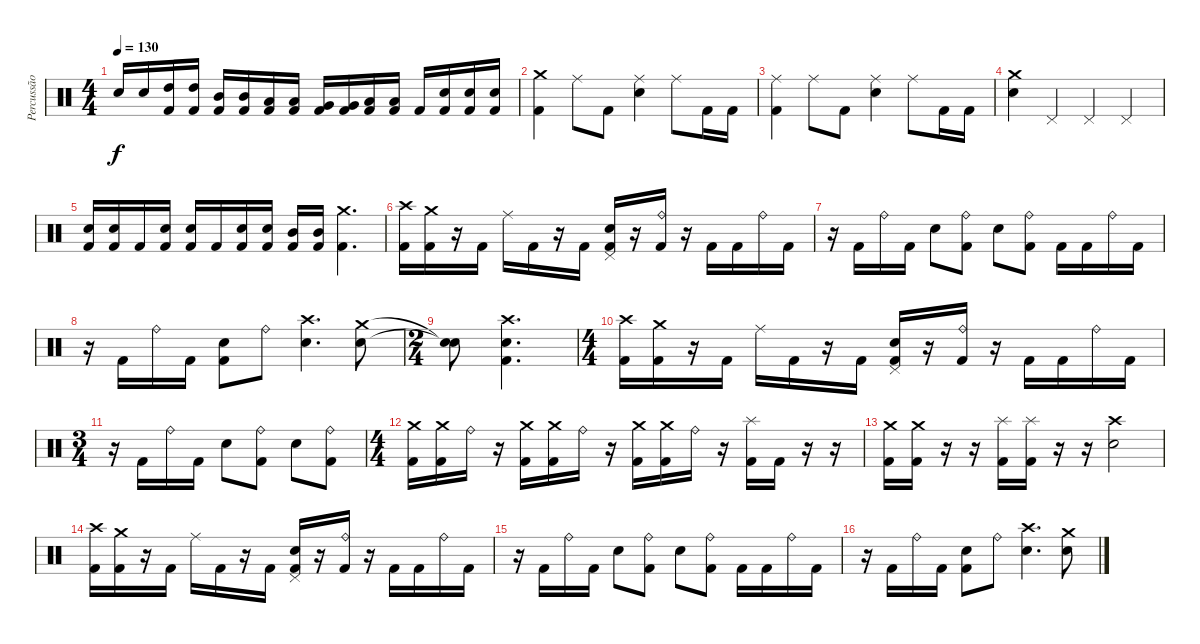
\track ("Percussão" "Percussão") {instrument percussion}
\staff {score}
\articulation defaults
\ts (4 4)
\tempo 130
\clef neutral
\ks c "Electric Snare (hit)".16{dy f} "Electric Snare (hit)".16
("High Tom (hit)" "Kick (hit) 2").16 ("High Tom (hit)" "Kick (hit) 2").16 ("Mid Tom (hit)" "Kick (hit) 2").16 ("Mid Tom (hit)" "Kick (hit) 2").16 ("Low Tom (hit)" "Kick (hit) 2").16 ("Low Tom (hit)" "Kick (hit) 2").16 ("Very Low Tom (hit)" "Kick (hit) 2").16 ("Very Low Tom (hit)" "Kick (hit) 2").16 ("Low Floor Tom (hit)" "Kick (hit) 2").16 ("Low Floor Tom (hit)" "Kick (hit) 2").16 "Kick (hit) 2".16 ("Electric Snare (hit)" "Kick (hit) 2").16 ("Electric Snare (hit)" "Kick (hit) 2").16 ("Electric Snare (hit)" "Kick (hit) 2").16 |
("Crash medium (hit)" "Kick (hit) 2").4 "Ride (middle)".8 "Kick (hit) 2".8 ("Ride (middle)" "Electric Snare (hit)").4 "Ride (middle)".8 "Kick (hit) 2".16 "Kick (hit) 2".16 |
("Ride (middle)" "Kick (hit) 2").4 "Ride (middle)".8 "Kick (hit) 2".8 ("Ride (middle)" "Electric Snare (hit)").4 "Ride (middle)".8 "Kick (hit) 2".16 "Kick (hit) 2".16 |
("Crash medium (hit)" "Electric Snare (hit)").4 "Pedal Hi-Hat (hit)".4 "Pedal Hi-Hat (hit)".4 "Pedal Hi-Hat (hit)".4 |
("Electric Snare (hit)" "Kick (hit) 2").16 ("Electric Snare (hit)" "Kick (hit) 2").16 "Kick (hit) 2".16 ("Electric Snare (hit)" "Kick (hit) 2").16 ("Electric Snare (hit)" "Kick (hit) 2").16 "Kick (hit) 2".16 ("Electric Snare (hit)" "Kick (hit) 2").16 ("Electric Snare (hit)" "Kick (hit) 2").16 ("Mid Tom (hit)" "Kick (hit) 2").16 ("Mid Tom (hit)" "Kick (hit) 2").16 ("Crash medium (hit)" "Kick (hit) 2").4{d} |
("Crash high (hit)" "Kick (hit) 2").16 ("Crash medium (hit)" "Kick (hit) 2").16 r.16 "Kick (hit) 2".16 "Ride (middle)".16 "Kick (hit) 2".16 r.16 "Kick (hit) 2".16 ("Pedal Hi-Hat (hit)" "Electric Snare (hit)" "Kick (hit) 2").16 r.16 ("Ride (bell)" "Kick (hit) 2").16 r.16 "Kick (hit) 2".16 "Kick (hit) 2".16 "Ride (bell)".16 "Kick (hit) 2".16 |
r.16 "Kick (hit) 2".16 "Ride (bell)".16 "Kick (hit) 2".16 "Electric Snare (hit)".8 ("Ride (bell)" "Kick (hit) 2").8 "Electric Snare (hit)".8 ("Ride (bell)" "Kick (hit) 2").8 "Kick (hit) 2".16 "Kick (hit) 2".16 "Ride (bell)".16 "Kick (hit) 2".16 |
r.16 "Kick (hit) 2".16 "Ride (bell)".16 "Kick (hit) 2".16 ("Electric Snare (hit)" "Kick (hit) 2").8 "Ride (bell)".8 ("Crash high (hit)" "Electric Snare (hit)").4{d} ("Crash medium (hit)" "Electric Snare (hit)").8 |
\ts (2 4)
("Snare (hit)"{t} "Snare (hit)"{t}).8 ("Crash high (hit)" "Electric Snare (hit)" "Kick (hit) 2").4{d} |
\ts (4 4)
("Crash high (hit)" "Kick (hit) 2").16 ("Crash medium (hit)" "Kick (hit) 2").16 r.16 "Kick (hit) 2".16 "Ride (middle)".16 "Kick (hit) 2".16 r.16 "Kick (hit) 2".16 ("Pedal Hi-Hat (hit)" "Electric Snare (hit)" "Kick (hit) 2").16 r.16 ("Ride (bell)" "Kick (hit) 2").16 r.16 "Kick (hit) 2".16 "Kick (hit) 2".16 "Ride (bell)".16 "Kick (hit) 2".16 |
\ts (3 4)
r.16 "Kick (hit) 2".16 "Ride (bell)".16 "Kick (hit) 2".16 "Electric Snare (hit)".8 ("Ride (bell)" "Kick (hit) 2").8 "Electric Snare (hit)".8 ("Ride (bell)" "Kick (hit) 2").8 |
\ts (4 4)
("Crash medium (hit)" "Kick (hit) 2").16 ("Crash medium (hit)" "Kick (hit) 2").16 "Ride (bell)".16 r.16 ("Crash medium (hit)" "Kick (hit) 2").16 ("Crash medium (hit)" "Kick (hit) 2").16 "Ride (bell)".16 r.16 ("Crash medium (hit)" "Kick (hit) 2").16 ("Crash medium (hit)" "Kick (hit) 2").16 "Ride (bell)".16 r.16 ("Splash (hit)" "Kick (hit) 2").16 "Kick (hit) 2".16 r.16 r.16 |
("Crash medium (hit)" "Kick (hit) 2").16 ("Crash medium (hit)" "Kick (hit) 2").16 r.16 r.16 ("Splash (hit)" "Kick (hit) 2").16 ("Splash (hit)" "Kick (hit) 2").16 r.16 r.16 ("Crash high (hit)" "Electric Snare (hit)").2 |
("Crash high (hit)" "Kick (hit) 2").16 ("Crash medium (hit)" "Kick (hit) 2").16 r.16 "Kick (hit) 2".16 "Ride (middle)".16 "Kick (hit) 2".16 r.16 "Kick (hit) 2".16 ("Pedal Hi-Hat (hit)" "Electric Snare (hit)" "Kick (hit) 2").16 r.16 ("Ride (bell)" "Kick (hit) 2").16 r.16 "Kick (hit) 2".16 "Kick (hit) 2".16 "Ride (bell)".16 "Kick (hit) 2".16 |
r.16 "Kick (hit) 2".16 "Ride (bell)".16 "Kick (hit) 2".16 "Electric Snare (hit)".8 ("Ride (bell)" "Kick (hit) 2").8 "Electric Snare (hit)".8 ("Ride (bell)" "Kick (hit) 2").8 "Kick (hit) 2".16 "Kick (hit) 2".16 "Ride (bell)".16 "Kick (hit) 2".16 |
r.16 "Kick (hit) 2".16 "Ride (bell)".16 "Kick (hit) 2".16 ("Electric Snare (hit)" "Kick (hit) 2").8 "Ride (bell)".8 ("Crash high (hit)" "Electric Snare (hit)").4{d} ("Crash medium (hit)" "Electric Snare (hit)").8
